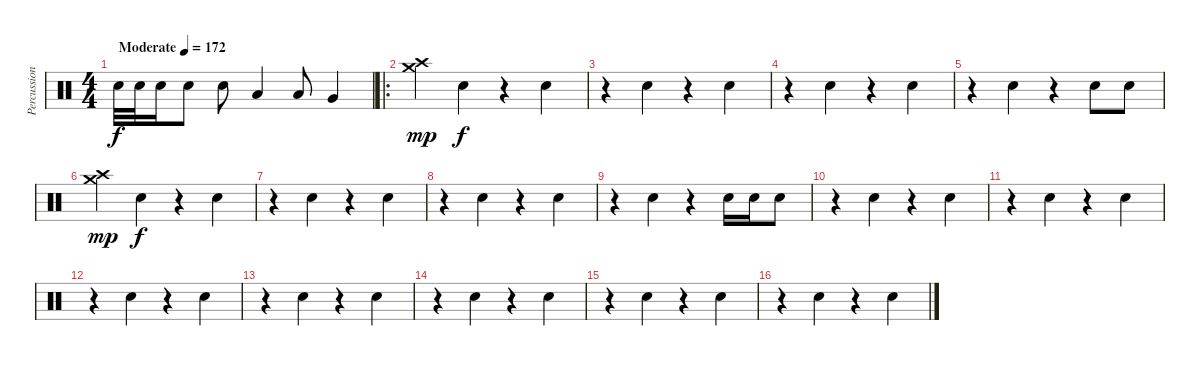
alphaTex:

\track ("Percussion" "Percussion") {instrument percussion}
\staff {score}
\articulation defaults
\ts (4 4)
\tempo (172 "Moderate")
\clef neutral
\ks c "Snare (hit) 2".32{dy f} "Snare (hit) 2".32 "Snare (hit) 2".16 "Snare (hit) 2".8 "Snare (hit) 2".8 "Low Tom (hit)".4 "Low Tom (hit)".8 "Very Low Tom (hit)".4
|
\ro
("Crash medium (hit)" "Crash high (hit)").4{dy mp} "Snare (hit) 2".4{dy f} r.4 "Snare (hit) 2".4 |
r.4 "Snare (hit) 2".4 r.4 "Snare (hit) 2".4 |
r.4 "Snare (hit) 2".4 r.4 "Snare (hit) 2".4 |
r.4 "Snare (hit) 2".4 r.4 "Snare (hit) 2".8 "Snare (hit) 2".8 |
("Crash medium (hit)" "Crash high (hit)").4{dy mp} "Snare (hit) 2".4{dy f} r.4 "Snare (hit) 2".4 |
r.4 "Snare (hit) 2".4 r.4 "Snare (hit) 2".4 |
r.4 "Snare (hit) 2".4 r.4 "Snare (hit) 2".4 |
r.4 "Snare (hit) 2".4 r.4 "Snare (hit) 2".16 "Snare (hit) 2".16 "Snare (hit) 2".8 |
r.4 "Snare (hit) 2".4 r.4 "Snare (hit) 2".4 |
r.4 "Snare (hit) 2".4 r.4 "Snare (hit) 2".4 |
r.4 "Snare (hit) 2".4 r.4 "Snare (hit) 2".4 |
r.4 "Snare (hit) 2".4 r.4 "Snare (hit) 2".4 |
r.4 "Snare (hit) 2".4 r.4 "Snare (hit) 2".4 |
r.4 "Snare (hit) 2".4 r.4 "Snare (hit) 2".4 |
r.4 "Snare (hit) 2".4 r.4 "Snare (hit) 2".4
